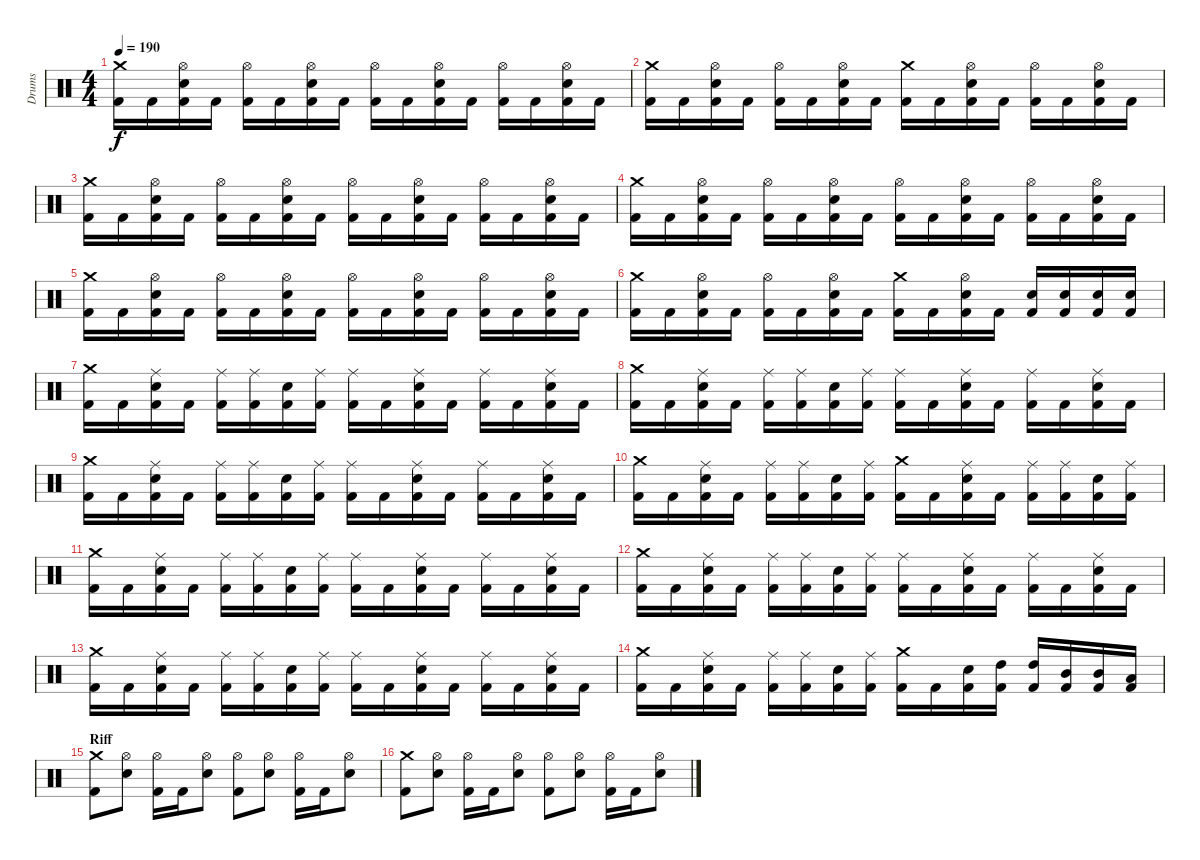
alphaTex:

\track ("Drums" "Drums") {instrument percussion}
\staff {score}
\articulation defaults
\ts (4 4)
\tempo 190
\clef neutral
\ks c
("Crash medium (hit)" "Kick (hit) 2").16{dy f} "Kick (hit) 2".16 ("Hi-Hat (open)" "Snare (hit) 2" "Kick (hit) 2").16 "Kick (hit) 2".16 ("Hi-Hat (open)" "Kick (hit) 2").16 "Kick (hit) 2".16 ("Hi-Hat (open)" "Snare (hit) 2" "Kick (hit) 2").16 "Kick (hit) 2".16 ("Hi-Hat (open)" "Kick (hit) 2").16 "Kick (hit) 2".16 ("Hi-Hat (open)" "Snare (hit) 2" "Kick (hit) 2").16 "Kick (hit) 2".16 ("Hi-Hat (open)" "Kick (hit) 2").16 "Kick (hit) 2".16 ("Hi-Hat (open)" "Snare (hit) 2" "Kick (hit) 2").16 "Kick (hit) 2".16 |
("Crash medium (hit)" "Kick (hit) 2").16 "Kick (hit) 2".16 ("Hi-Hat (open)" "Snare (hit) 2" "Kick (hit) 2").16 "Kick (hit) 2".16 ("Hi-Hat (open)" "Kick (hit) 2").16 "Kick (hit) 2".16 ("Hi-Hat (open)" "Snare (hit) 2" "Kick (hit) 2").16 "Kick (hit) 2".16 ("Crash medium (hit)" "Kick (hit) 2").16 "Kick (hit) 2".16 ("Hi-Hat (open)" "Snare (hit) 2" "Kick (hit) 2").16 "Kick (hit) 2".16 ("Hi-Hat (open)" "Kick (hit) 2").16 "Kick (hit) 2".16 ("Hi-Hat (open)" "Snare (hit) 2" "Kick (hit) 2").16 "Kick (hit) 2".16 |
("Crash medium (hit)" "Kick (hit) 2").16 "Kick (hit) 2".16 ("Hi-Hat (open)" "Snare (hit) 2" "Kick (hit) 2").16 "Kick (hit) 2".16 ("Hi-Hat (open)" "Kick (hit) 2").16 "Kick (hit) 2".16 ("Hi-Hat (open)" "Snare (hit) 2" "Kick (hit) 2").16 "Kick (hit) 2".16 ("Hi-Hat (open)" "Kick (hit) 2").16 "Kick (hit) 2".16 ("Hi-Hat (open)" "Snare (hit) 2" "Kick (hit) 2").16 "Kick (hit) 2".16 ("Hi-Hat (open)" "Kick (hit) 2").16 "Kick (hit) 2".16 ("Hi-Hat (open)" "Snare (hit) 2" "Kick (hit) 2").16 "Kick (hit) 2".16 |
("Crash medium (hit)" "Kick (hit) 2").16 "Kick (hit) 2".16 ("Hi-Hat (open)" "Snare (hit) 2" "Kick (hit) 2").16 "Kick (hit) 2".16 ("Hi-Hat (open)" "Kick (hit) 2").16 "Kick (hit) 2".16 ("Hi-Hat (open)" "Snare (hit) 2" "Kick (hit) 2").16 "Kick (hit) 2".16 ("Hi-Hat (open)" "Kick (hit) 2").16 "Kick (hit) 2".16 ("Hi-Hat (open)" "Snare (hit) 2" "Kick (hit) 2").16 "Kick (hit) 2".16 ("Hi-Hat (open)" "Kick (hit) 2").16 "Kick (hit) 2".16 ("Hi-Hat (open)" "Snare (hit) 2" "Kick (hit) 2").16 "Kick (hit) 2".16 |
("Crash medium (hit)" "Kick (hit) 2").16 "Kick (hit) 2".16 ("Hi-Hat (open)" "Snare (hit) 2" "Kick (hit) 2").16 "Kick (hit) 2".16 ("Hi-Hat (open)" "Kick (hit) 2").16 "Kick (hit) 2".16 ("Hi-Hat (open)" "Snare (hit) 2" "Kick (hit) 2").16 "Kick (hit) 2".16 ("Hi-Hat (open)" "Kick (hit) 2").16 "Kick (hit) 2".16 ("Hi-Hat (open)" "Snare (hit) 2" "Kick (hit) 2").16 "Kick (hit) 2".16 ("Hi-Hat (open)" "Kick (hit) 2").16 "Kick (hit) 2".16 ("Hi-Hat (open)" "Snare (hit) 2" "Kick (hit) 2").16 "Kick (hit) 2".16 |
("Crash medium (hit)" "Kick (hit) 2").16 "Kick (hit) 2".16 ("Hi-Hat (open)" "Snare (hit) 2" "Kick (hit) 2").16 "Kick (hit) 2".16 ("Hi-Hat (open)" "Kick (hit) 2").16 "Kick (hit) 2".16 ("Hi-Hat (open)" "Snare (hit) 2" "Kick (hit) 2").16 "Kick (hit) 2".16 ("Crash medium (hit)" "Kick (hit) 2").16 "Kick (hit) 2".16 ("Hi-Hat (open)" "Snare (hit) 2" "Kick (hit) 2").16 "Kick (hit) 2".16 ("Snare (hit) 2" "Kick (hit) 2").16 ("Snare (hit) 2" "Kick (hit) 2").16 ("Snare (hit) 2" "Kick (hit) 2").16 ("Snare (hit) 2" "Kick (hit) 2").16 |
("Crash medium (hit)" "Kick (hit) 2").16 "Kick (hit) 2".16 ("Ride (middle)" "Snare (hit) 2" "Kick (hit) 2").16 "Kick (hit) 2".16 ("Ride (middle)" "Kick (hit) 2").16 ("Ride (middle)" "Kick (hit) 2").16 ("Snare (hit) 2" "Kick (hit) 2").16 ("Ride (middle)" "Kick (hit) 2").16 ("Ride (middle)" "Kick (hit) 2").16 "Kick (hit) 2".16 ("Ride (middle)" "Snare (hit) 2" "Kick (hit) 2").16 "Kick (hit) 2".16 ("Ride (middle)" "Kick (hit) 2").16 "Kick (hit) 2".16 ("Ride (middle)" "Snare (hit) 2" "Kick (hit) 2").16 "Kick (hit) 2".16 |
("Crash medium (hit)" "Kick (hit) 2").16 "Kick (hit) 2".16 ("Ride (middle)" "Snare (hit) 2" "Kick (hit) 2").16 "Kick (hit) 2".16 ("Ride (middle)" "Kick (hit) 2").16 ("Ride (middle)" "Kick (hit) 2").16 ("Snare (hit) 2" "Kick (hit) 2").16 ("Ride (middle)" "Kick (hit) 2").16 ("Ride (middle)" "Kick (hit) 2").16 "Kick (hit) 2".16 ("Ride (middle)" "Snare (hit) 2" "Kick (hit) 2").16 "Kick (hit) 2".16 ("Ride (middle)" "Kick (hit) 2").16 "Kick (hit) 2".16 ("Ride (middle)" "Snare (hit) 2" "Kick (hit) 2").16 "Kick (hit) 2".16 |
("Crash medium (hit)" "Kick (hit) 2").16 "Kick (hit) 2".16 ("Ride (middle)" "Snare (hit) 2" "Kick (hit) 2").16 "Kick (hit) 2".16 ("Ride (middle)" "Kick (hit) 2").16 ("Ride (middle)" "Kick (hit) 2").16 ("Snare (hit) 2" "Kick (hit) 2").16 ("Ride (middle)" "Kick (hit) 2").16 ("Ride (middle)" "Kick (hit) 2").16 "Kick (hit) 2".16 ("Ride (middle)" "Snare (hit) 2" "Kick (hit) 2").16 "Kick (hit) 2".16 ("Ride (middle)" "Kick (hit) 2").16 "Kick (hit) 2".16 ("Ride (middle)" "Snare (hit) 2" "Kick (hit) 2").16 "Kick (hit) 2".16 |
("Crash medium (hit)" "Kick (hit) 2").16 "Kick (hit) 2".16 ("Ride (middle)" "Snare (hit) 2" "Kick (hit) 2").16 "Kick (hit) 2".16 ("Ride (middle)" "Kick (hit) 2").16 ("Ride (middle)" "Kick (hit) 2").16 ("Snare (hit) 2" "Kick (hit) 2").16 ("Ride (middle)" "Kick (hit) 2").16 ("Crash medium (hit)" "Kick (hit) 2").16 "Kick (hit) 2".16 ("Ride (middle)" "Snare (hit) 2" "Kick (hit) 2").16 "Kick (hit) 2".16 ("Ride (middle)" "Kick (hit) 2").16 ("Ride (middle)" "Kick (hit) 2").16 ("Snare (hit) 2" "Kick (hit) 2").16 ("Ride (middle)" "Kick (hit) 2").16 |
("Crash medium (hit)" "Kick (hit) 2").16 "Kick (hit) 2".16 ("Ride (middle)" "Snare (hit) 2" "Kick (hit) 2").16 "Kick (hit) 2".16 ("Ride (middle)" "Kick (hit) 2").16 ("Ride (middle)" "Kick (hit) 2").16 ("Snare (hit) 2" "Kick (hit) 2").16 ("Ride (middle)" "Kick (hit) 2").16 ("Ride (middle)" "Kick (hit) 2").16 "Kick (hit) 2".16 ("Ride (middle)" "Snare (hit) 2" "Kick (hit) 2").16 "Kick (hit) 2".16 ("Ride (middle)" "Kick (hit) 2").16 "Kick (hit) 2".16 ("Ride (middle)" "Snare (hit) 2" "Kick (hit) 2").16 "Kick (hit) 2".16 |
("Crash medium (hit)" "Kick (hit) 2").16 "Kick (hit) 2".16 ("Ride (middle)" "Snare (hit) 2" "Kick (hit) 2").16 "Kick (hit) 2".16 ("Ride (middle)" "Kick (hit) 2").16 ("Ride (middle)" "Kick (hit) 2").16 ("Snare (hit) 2" "Kick (hit) 2").16 ("Ride (middle)" "Kick (hit) 2").16 ("Ride (middle)" "Kick (hit) 2").16 "Kick (hit) 2".16 ("Ride (middle)" "Snare (hit) 2" "Kick (hit) 2").16 "Kick (hit) 2".16 ("Ride (middle)" "Kick (hit) 2").16 "Kick (hit) 2".16 ("Ride (middle)" "Snare (hit) 2" "Kick (hit) 2").16 "Kick (hit) 2".16 |
("Crash medium (hit)" "Kick (hit) 2").16 "Kick (hit) 2".16 ("Ride (middle)" "Snare (hit) 2" "Kick (hit) 2").16 "Kick (hit) 2".16 ("Ride (middle)" "Kick (hit) 2").16 ("Ride (middle)" "Kick (hit) 2").16 ("Snare (hit) 2" "Kick (hit) 2").16 ("Ride (middle)" "Kick (hit) 2").16 ("Ride (middle)" "Kick (hit) 2").16 "Kick (hit) 2".16 ("Ride (middle)" "Snare (hit) 2" "Kick (hit) 2").16 "Kick (hit) 2".16 ("Ride (middle)" "Kick (hit) 2").16 "Kick (hit) 2".16 ("Ride (middle)" "Snare (hit) 2" "Kick (hit) 2").16 "Kick (hit) 2".16 |
("Crash medium (hit)" "Kick (hit) 2").16 "Kick (hit) 2".16 ("Ride (middle)" "Snare (hit) 2" "Kick (hit) 2").16 "Kick (hit) 2".16 ("Ride (middle)" "Kick (hit) 2").16 ("Ride (middle)" "Kick (hit) 2").16 ("Snare (hit) 2" "Kick (hit) 2").16 ("Ride (middle)" "Kick (hit) 2").16 ("Crash medium (hit)" "Kick (hit) 2").16 "Kick (hit) 2".16 ("Snare (hit) 2" "Kick (hit) 2").16 ("High Tom (hit)" "Kick (hit) 2").16 ("High Tom (hit)" "Kick (hit) 2").16 ("Mid Tom (hit)" "Kick (hit) 2").16 ("Mid Tom (hit)" "Kick (hit) 2").16 ("Low Tom (hit)" "Kick (hit) 2").16 |
\section ("" "Riff")
("Crash medium (hit)" "Kick (hit) 2").8 ("Hi-Hat (open)" "Snare (hit) 2").8 ("Hi-Hat (open)" "Kick (hit) 2").16 "Kick (hit) 2".16 ("Hi-Hat (open)" "Snare (hit) 2").8 ("Hi-Hat (open)" "Kick (hit) 2").8 ("Hi-Hat (open)" "Snare (hit) 2").8 ("Hi-Hat (open)" "Kick (hit) 2").16 "Kick (hit) 2".16 ("Hi-Hat (open)" "Snare (hit) 2").8 |
("Crash medium (hit)" "Kick (hit) 2").8 ("Hi-Hat (open)" "Snare (hit) 2").8 ("Hi-Hat (open)" "Kick (hit) 2").16 "Kick (hit) 2".16 ("Hi-Hat (open)" "Snare (hit) 2").8 ("Hi-Hat (open)" "Kick (hit) 2").8 ("Hi-Hat (open)" "Snare (hit) 2").8 ("Hi-Hat (open)" "Kick (hit) 2").16 "Kick (hit) 2".16 ("Hi-Hat (open)" "Snare (hit) 2").8
